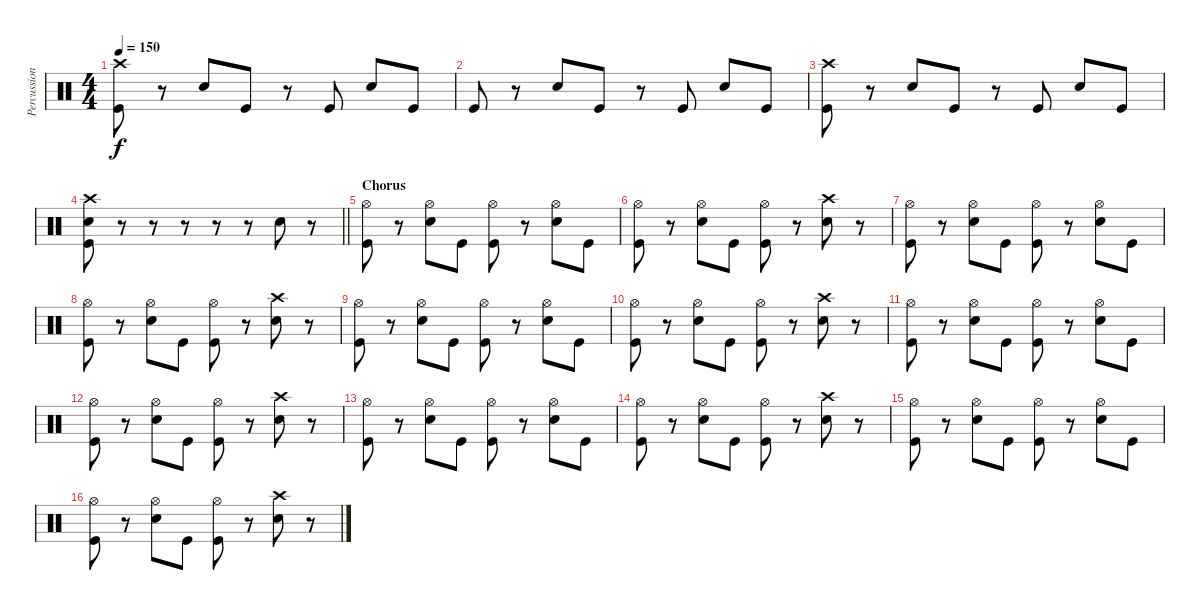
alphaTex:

\track ("Percussion" "Percussion") {instrument percussion}
\staff
\articulation defaults
\ts (4 4)
\tempo 150
\clef neutral
\ks c
("Crash high (hit)" "Kick (hit)").8{dy f} r.8 "Electric Snare (hit)".8 "Kick (hit)".8 r.8 "Kick (hit)".8 "Electric Snare (hit)".8 "Kick (hit)".8 |
"Kick (hit)".8 r.8 "Electric Snare (hit)".8 "Kick (hit)".8 r.8 "Kick (hit)".8 "Electric Snare (hit)".8 "Kick (hit)".8 |
("Crash high (hit)" "Kick (hit)").8 r.8 "Electric Snare (hit)".8 "Kick (hit)".8 r.8 "Kick (hit)".8 "Electric Snare (hit)".8 "Kick (hit)".8 |
\barLineRight lightlight
("Crash high (hit)" "Electric Snare (hit)" "Kick (hit)").8 r.8 r.8 r.8 r.8 r.8 "Electric Snare (hit)".8 r.8 |
\section ("" "Chorus")
("Hi-Hat (open)" "Kick (hit)").8 r.8 ("Hi-Hat (open)" "Electric Snare (hit)").8 "Kick (hit)".8 ("Hi-Hat (open)" "Kick (hit)").8 r.8 ("Hi-Hat (open)" "Electric Snare (hit)").8 "Kick (hit)".8 |
("Hi-Hat (open)" "Kick (hit)").8 r.8 ("Hi-Hat (open)" "Electric Snare (hit)").8 "Kick (hit)".8 ("Hi-Hat (open)" "Kick (hit)").8 r.8 ("Crash high (hit)" "Electric Snare (hit)").8 r.8 |
("Hi-Hat (open)" "Kick (hit)").8 r.8 ("Hi-Hat (open)" "Electric Snare (hit)").8 "Kick (hit)".8 ("Hi-Hat (open)" "Kick (hit)").8 r.8 ("Hi-Hat (open)" "Electric Snare (hit)").8 "Kick (hit)".8 |
("Hi-Hat (open)" "Kick (hit)").8 r.8 ("Hi-Hat (open)" "Electric Snare (hit)").8 "Kick (hit)".8 ("Hi-Hat (open)" "Kick (hit)").8 r.8 ("Crash high (hit)" "Electric Snare (hit)").8 r.8 |
("Hi-Hat (open)" "Kick (hit)").8 r.8 ("Hi-Hat (open)" "Electric Snare (hit)").8 "Kick (hit)".8 ("Hi-Hat (open)" "Kick (hit)").8 r.8 ("Hi-Hat (open)" "Electric Snare (hit)").8 "Kick (hit)".8 |
("Hi-Hat (open)" "Kick (hit)").8 r.8 ("Hi-Hat (open)" "Electric Snare (hit)").8 "Kick (hit)".8 ("Hi-Hat (open)" "Kick (hit)").8 r.8 ("Crash high (hit)" "Electric Snare (hit)").8 r.8 |
("Hi-Hat (open)" "Kick (hit)").8 r.8 ("Hi-Hat (open)" "Electric Snare (hit)").8 "Kick (hit)".8 ("Hi-Hat (open)" "Kick (hit)").8 r.8 ("Hi-Hat (open)" "Electric Snare (hit)").8 "Kick (hit)".8 |
("Hi-Hat (open)" "Kick (hit)").8 r.8 ("Hi-Hat (open)" "Electric Snare (hit)").8 "Kick (hit)".8 ("Hi-Hat (open)" "Kick (hit)").8 r.8 ("Crash high (hit)" "Electric Snare (hit)").8 r.8 |
("Hi-Hat (open)" "Kick (hit)").8 r.8 ("Hi-Hat (open)" "Electric Snare (hit)").8 "Kick (hit)".8 ("Hi-Hat (open)" "Kick (hit)").8 r.8 ("Hi-Hat (open)" "Electric Snare (hit)").8 "Kick (hit)".8 |
("Hi-Hat (open)" "Kick (hit)").8 r.8 ("Hi-Hat (open)" "Electric Snare (hit)").8 "Kick (hit)".8 ("Hi-Hat (open)" "Kick (hit)").8 r.8 ("Crash high (hit)" "Electric Snare (hit)").8 r.8 |
("Hi-Hat (open)" "Kick (hit)").8 r.8 ("Hi-Hat (open)" "Electric Snare (hit)").8 "Kick (hit)".8 ("Hi-Hat (open)" "Kick (hit)").8 r.8 ("Hi-Hat (open)" "Electric Snare (hit)").8 "Kick (hit)".8 |
("Hi-Hat (open)" "Kick (hit)").8 r.8 ("Hi-Hat (open)" "Electric Snare (hit)").8 "Kick (hit)".8 ("Hi-Hat (open)" "Kick (hit)").8 r.8 ("Crash high (hit)" "Electric Snare (hit)").8 r.8
